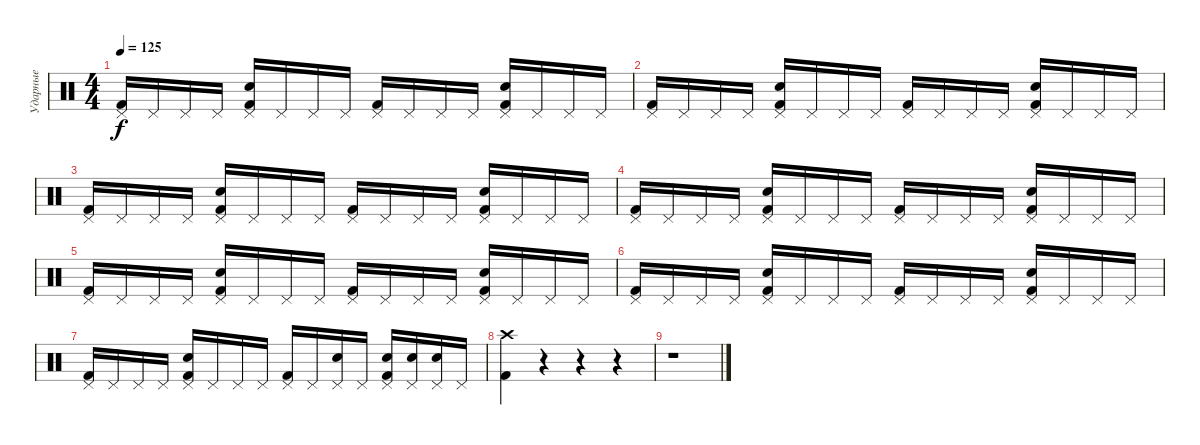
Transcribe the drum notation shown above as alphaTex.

\track ("Ударные" "Ударные") {instrument percussion}
\staff {score}
\articulation defaults
\ts (4 4)
\tempo 125
\clef neutral
\ks c
("Kick (hit) 2" "Pedal Hi-Hat (hit)").16{dy f} "Pedal Hi-Hat (hit)".16 "Pedal Hi-Hat (hit)".16 "Pedal Hi-Hat (hit)".16 ("Kick (hit) 2" "Pedal Hi-Hat (hit)" "Snare (hit) 2").16 "Pedal Hi-Hat (hit)".16 "Pedal Hi-Hat (hit)".16 "Pedal Hi-Hat (hit)".16 ("Kick (hit) 2" "Pedal Hi-Hat (hit)").16 "Pedal Hi-Hat (hit)".16 "Pedal Hi-Hat (hit)".16 "Pedal Hi-Hat (hit)".16 ("Kick (hit) 2" "Pedal Hi-Hat (hit)" "Snare (hit) 2").16 "Pedal Hi-Hat (hit)".16 "Pedal Hi-Hat (hit)".16 "Pedal Hi-Hat (hit)".16 |
("Kick (hit) 2" "Pedal Hi-Hat (hit)").16 "Pedal Hi-Hat (hit)".16 "Pedal Hi-Hat (hit)".16 "Pedal Hi-Hat (hit)".16 ("Kick (hit) 2" "Pedal Hi-Hat (hit)" "Snare (hit) 2").16 "Pedal Hi-Hat (hit)".16 "Pedal Hi-Hat (hit)".16 "Pedal Hi-Hat (hit)".16 ("Kick (hit) 2" "Pedal Hi-Hat (hit)").16 "Pedal Hi-Hat (hit)".16 "Pedal Hi-Hat (hit)".16 "Pedal Hi-Hat (hit)".16 ("Kick (hit) 2" "Pedal Hi-Hat (hit)" "Snare (hit) 2").16 "Pedal Hi-Hat (hit)".16 "Pedal Hi-Hat (hit)".16 "Pedal Hi-Hat (hit)".16 |
("Kick (hit) 2" "Pedal Hi-Hat (hit)").16 "Pedal Hi-Hat (hit)".16 "Pedal Hi-Hat (hit)".16 "Pedal Hi-Hat (hit)".16 ("Kick (hit) 2" "Pedal Hi-Hat (hit)" "Snare (hit) 2").16 "Pedal Hi-Hat (hit)".16 "Pedal Hi-Hat (hit)".16 "Pedal Hi-Hat (hit)".16 ("Kick (hit) 2" "Pedal Hi-Hat (hit)").16 "Pedal Hi-Hat (hit)".16 "Pedal Hi-Hat (hit)".16 "Pedal Hi-Hat (hit)".16 ("Kick (hit) 2" "Pedal Hi-Hat (hit)" "Snare (hit) 2").16 "Pedal Hi-Hat (hit)".16 "Pedal Hi-Hat (hit)".16 "Pedal Hi-Hat (hit)".16 |
("Kick (hit) 2" "Pedal Hi-Hat (hit)").16 "Pedal Hi-Hat (hit)".16 "Pedal Hi-Hat (hit)".16 "Pedal Hi-Hat (hit)".16 ("Kick (hit) 2" "Pedal Hi-Hat (hit)" "Snare (hit) 2").16 "Pedal Hi-Hat (hit)".16 "Pedal Hi-Hat (hit)".16 "Pedal Hi-Hat (hit)".16 ("Kick (hit) 2" "Pedal Hi-Hat (hit)").16 "Pedal Hi-Hat (hit)".16 "Pedal Hi-Hat (hit)".16 "Pedal Hi-Hat (hit)".16 ("Kick (hit) 2" "Pedal Hi-Hat (hit)" "Snare (hit) 2").16 "Pedal Hi-Hat (hit)".16 "Pedal Hi-Hat (hit)".16 "Pedal Hi-Hat (hit)".16 |
("Kick (hit) 2" "Pedal Hi-Hat (hit)").16 "Pedal Hi-Hat (hit)".16 "Pedal Hi-Hat (hit)".16 "Pedal Hi-Hat (hit)".16 ("Kick (hit) 2" "Pedal Hi-Hat (hit)" "Snare (hit) 2").16 "Pedal Hi-Hat (hit)".16 "Pedal Hi-Hat (hit)".16 "Pedal Hi-Hat (hit)".16 ("Kick (hit) 2" "Pedal Hi-Hat (hit)").16 "Pedal Hi-Hat (hit)".16 "Pedal Hi-Hat (hit)".16 "Pedal Hi-Hat (hit)".16 ("Kick (hit) 2" "Pedal Hi-Hat (hit)" "Snare (hit) 2").16 "Pedal Hi-Hat (hit)".16 "Pedal Hi-Hat (hit)".16 "Pedal Hi-Hat (hit)".16 |
("Kick (hit) 2" "Pedal Hi-Hat (hit)").16 "Pedal Hi-Hat (hit)".16 "Pedal Hi-Hat (hit)".16 "Pedal Hi-Hat (hit)".16 ("Kick (hit) 2" "Pedal Hi-Hat (hit)" "Snare (hit) 2").16 "Pedal Hi-Hat (hit)".16 "Pedal Hi-Hat (hit)".16 "Pedal Hi-Hat (hit)".16 ("Kick (hit) 2" "Pedal Hi-Hat (hit)").16 "Pedal Hi-Hat (hit)".16 "Pedal Hi-Hat (hit)".16 "Pedal Hi-Hat (hit)".16 ("Kick (hit) 2" "Pedal Hi-Hat (hit)" "Snare (hit) 2").16 "Pedal Hi-Hat (hit)".16 "Pedal Hi-Hat (hit)".16 "Pedal Hi-Hat (hit)".16 |
("Kick (hit) 2" "Pedal Hi-Hat (hit)").16 "Pedal Hi-Hat (hit)".16 "Pedal Hi-Hat (hit)".16 "Pedal Hi-Hat (hit)".16 ("Kick (hit) 2" "Pedal Hi-Hat (hit)" "Snare (hit) 2").16 "Pedal Hi-Hat (hit)".16 "Pedal Hi-Hat (hit)".16 "Pedal Hi-Hat (hit)".16 ("Kick (hit) 2" "Pedal Hi-Hat (hit)").16 "Pedal Hi-Hat (hit)".16 ("Pedal Hi-Hat (hit)" "Snare (hit) 2").16 "Pedal Hi-Hat (hit)".16 ("Kick (hit) 2" "Pedal Hi-Hat (hit)" "Snare (hit) 2").16 ("Pedal Hi-Hat (hit)" "Snare (hit) 2").16 ("Pedal Hi-Hat (hit)" "Snare (hit) 2").16 "Pedal Hi-Hat (hit)".16 |
("Kick (hit) 2" "Crash high (hit)").4 r.4 r.4 r.4 |
r.1
